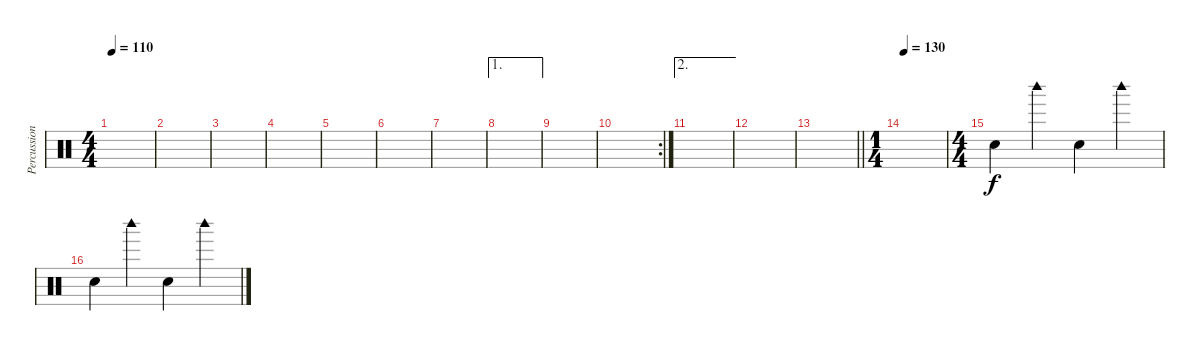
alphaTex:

\track ("Percussions" "Percussion") {instrument percussion}
\staff {score}
\articulation defaults
\ts (4 4)
\tempo 110
\clef neutral
\ks c
|
|
|
|
|
|
|
\ae 1
|
|
\rc 2
|
\ae 2
|
|
\barLineRight lightlight
|
\ts (1 4)
\tempo 130
|
\ts (4 4)
"Hand Clap (hit)".4 "Woodblock high (hit)".4 "Hand Clap (hit)".4 "Woodblock high (hit)".4 |
"Hand Clap (hit)".4 "Woodblock high (hit)".4 "Hand Clap (hit)".4 "Woodblock high (hit)".4
